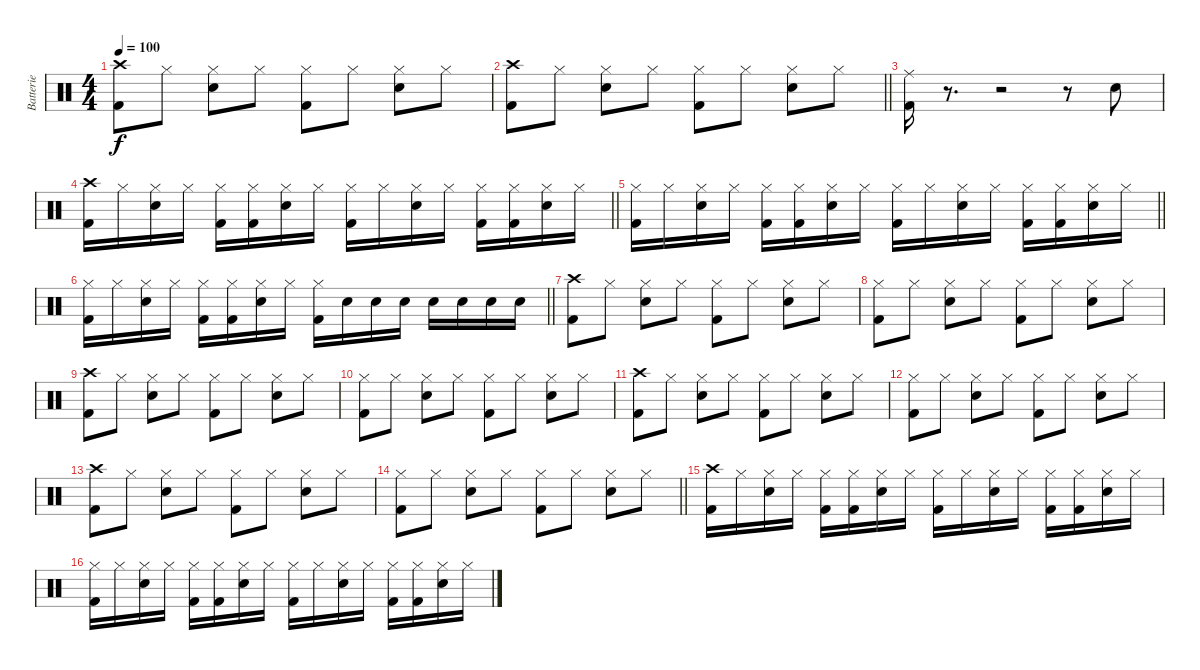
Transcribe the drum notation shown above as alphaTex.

\track ("Batterie" "Batterie") {instrument percussion}
\staff {score}
\articulation defaults
\ts (4 4)
\tempo 100
\clef neutral
\ks c
("Crash high (hit)" "Kick (hit) 2").8{dy f} "Hi-Hat (closed)".8 ("Hi-Hat (closed)" "Snare (hit) 2").8 "Hi-Hat (closed)".8 ("Hi-Hat (closed)" "Kick (hit) 2").8 "Hi-Hat (closed)".8 ("Hi-Hat (closed)" "Snare (hit) 2").8 "Hi-Hat (closed)".8 |
\barLineRight lightlight
("Crash high (hit)" "Kick (hit) 2").8 "Hi-Hat (closed)".8 ("Hi-Hat (closed)" "Snare (hit) 2").8 "Hi-Hat (closed)".8 ("Hi-Hat (closed)" "Kick (hit) 2").8 "Hi-Hat (closed)".8 ("Hi-Hat (closed)" "Snare (hit) 2").8 "Hi-Hat (closed)".8 |
\section ("" "")
("Ride (middle)" "Kick (hit) 2").16 r.8{d} r.2 r.8 "Snare (hit) 2".8 |
\barLineRight lightlight
("Crash high (hit)" "Kick (hit) 2").16 "Hi-Hat (closed)".16 ("Hi-Hat (closed)" "Snare (hit) 2").16 "Hi-Hat (closed)".16 ("Hi-Hat (closed)" "Kick (hit) 2").16 ("Hi-Hat (closed)" "Kick (hit) 2").16 ("Hi-Hat (closed)" "Snare (hit) 2").16 "Hi-Hat (closed)".16 ("Hi-Hat (closed)" "Kick (hit) 2").16 "Hi-Hat (closed)".16 ("Hi-Hat (closed)" "Snare (hit) 2").16 "Hi-Hat (closed)".16 ("Hi-Hat (closed)" "Kick (hit) 2").16 ("Hi-Hat (closed)" "Kick (hit) 2").16 ("Hi-Hat (closed)" "Snare (hit) 2").16 "Hi-Hat (closed)".16 |
\barLineRight lightlight
("Hi-Hat (closed)" "Kick (hit) 2").16 "Hi-Hat (closed)".16 ("Hi-Hat (closed)" "Snare (hit) 2").16 "Hi-Hat (closed)".16 ("Hi-Hat (closed)" "Kick (hit) 2").16 ("Hi-Hat (closed)" "Kick (hit) 2").16 ("Hi-Hat (closed)" "Snare (hit) 2").16 "Hi-Hat (closed)".16 ("Hi-Hat (closed)" "Kick (hit) 2").16 "Hi-Hat (closed)".16 ("Hi-Hat (closed)" "Snare (hit) 2").16 "Hi-Hat (closed)".16 ("Hi-Hat (closed)" "Kick (hit) 2").16 ("Hi-Hat (closed)" "Kick (hit) 2").16 ("Hi-Hat (closed)" "Snare (hit) 2").16 "Hi-Hat (closed)".16 |
\barLineRight lightlight
("Hi-Hat (closed)" "Kick (hit) 2").16 "Hi-Hat (closed)".16 ("Hi-Hat (closed)" "Snare (hit) 2").16 "Hi-Hat (closed)".16 ("Hi-Hat (closed)" "Kick (hit) 2").16 ("Hi-Hat (closed)" "Kick (hit) 2").16 ("Hi-Hat (closed)" "Snare (hit) 2").16 "Hi-Hat (closed)".16 ("Hi-Hat (closed)" "Kick (hit) 2").16 "Snare (hit) 2".16 "Snare (hit) 2".16 "Snare (hit) 2".16 "Snare (hit) 2".16 "Snare (hit) 2".16 "Snare (hit) 2".16 "Snare (hit) 2".16 |
\section ("" "")
("Crash high (hit)" "Kick (hit) 2").8 "Hi-Hat (closed)".8 ("Hi-Hat (closed)" "Snare (hit) 2").8 "Hi-Hat (closed)".8 ("Hi-Hat (closed)" "Kick (hit) 2").8 "Hi-Hat (closed)".8 ("Hi-Hat (closed)" "Snare (hit) 2").8 "Hi-Hat (closed)".8 |
("Hi-Hat (closed)" "Kick (hit) 2").8 "Hi-Hat (closed)".8 ("Hi-Hat (closed)" "Snare (hit) 2").8 "Hi-Hat (closed)".8 ("Hi-Hat (closed)" "Kick (hit) 2").8 "Hi-Hat (closed)".8 ("Hi-Hat (closed)" "Snare (hit) 2").8 "Hi-Hat (closed)".8 |
("Crash high (hit)" "Kick (hit) 2").8 "Hi-Hat (closed)".8 ("Hi-Hat (closed)" "Snare (hit) 2").8 "Hi-Hat (closed)".8 ("Hi-Hat (closed)" "Kick (hit) 2").8 "Hi-Hat (closed)".8 ("Hi-Hat (closed)" "Snare (hit) 2").8 "Hi-Hat (closed)".8 |
("Hi-Hat (closed)" "Kick (hit) 2").8 "Hi-Hat (closed)".8 ("Hi-Hat (closed)" "Snare (hit) 2").8 "Hi-Hat (closed)".8 ("Hi-Hat (closed)" "Kick (hit) 2").8 "Hi-Hat (closed)".8 ("Hi-Hat (closed)" "Snare (hit) 2").8 "Hi-Hat (closed)".8 |
("Crash high (hit)" "Kick (hit) 2").8 "Hi-Hat (closed)".8 ("Hi-Hat (closed)" "Snare (hit) 2").8 "Hi-Hat (closed)".8 ("Hi-Hat (closed)" "Kick (hit) 2").8 "Hi-Hat (closed)".8 ("Hi-Hat (closed)" "Snare (hit) 2").8 "Hi-Hat (closed)".8 |
("Hi-Hat (closed)" "Kick (hit) 2").8 "Hi-Hat (closed)".8 ("Hi-Hat (closed)" "Snare (hit) 2").8 "Hi-Hat (closed)".8 ("Hi-Hat (closed)" "Kick (hit) 2").8 "Hi-Hat (closed)".8 ("Hi-Hat (closed)" "Snare (hit) 2").8 "Hi-Hat (closed)".8 |
("Crash high (hit)" "Kick (hit) 2").8 "Hi-Hat (closed)".8 ("Hi-Hat (closed)" "Snare (hit) 2").8 "Hi-Hat (closed)".8 ("Hi-Hat (closed)" "Kick (hit) 2").8 "Hi-Hat (closed)".8 ("Hi-Hat (closed)" "Snare (hit) 2").8 "Hi-Hat (closed)".8 |
\barLineRight lightlight
("Hi-Hat (closed)" "Kick (hit) 2").8 "Hi-Hat (closed)".8 ("Hi-Hat (closed)" "Snare (hit) 2").8 "Hi-Hat (closed)".8 ("Hi-Hat (closed)" "Kick (hit) 2").8 "Hi-Hat (closed)".8 ("Hi-Hat (closed)" "Snare (hit) 2").8 "Hi-Hat (closed)".8 |
\section ("" "")
("Crash high (hit)" "Kick (hit) 2").16 "Hi-Hat (closed)".16 ("Hi-Hat (closed)" "Snare (hit) 2").16 "Hi-Hat (closed)".16 ("Hi-Hat (closed)" "Kick (hit) 2").16 ("Hi-Hat (closed)" "Kick (hit) 2").16 ("Hi-Hat (closed)" "Snare (hit) 2").16 "Hi-Hat (closed)".16 ("Hi-Hat (closed)" "Kick (hit) 2").16 "Hi-Hat (closed)".16 ("Hi-Hat (closed)" "Snare (hit) 2").16 "Hi-Hat (closed)".16 ("Hi-Hat (closed)" "Kick (hit) 2").16 ("Hi-Hat (closed)" "Kick (hit) 2").16 ("Hi-Hat (closed)" "Snare (hit) 2").16 "Hi-Hat (closed)".16 |
("Hi-Hat (closed)" "Kick (hit) 2").16 "Hi-Hat (closed)".16 ("Hi-Hat (closed)" "Snare (hit) 2").16 "Hi-Hat (closed)".16 ("Hi-Hat (closed)" "Kick (hit) 2").16 ("Hi-Hat (closed)" "Kick (hit) 2").16 ("Hi-Hat (closed)" "Snare (hit) 2").16 "Hi-Hat (closed)".16 ("Hi-Hat (closed)" "Kick (hit) 2").16 "Hi-Hat (closed)".16 ("Hi-Hat (closed)" "Snare (hit) 2").16 "Hi-Hat (closed)".16 ("Hi-Hat (closed)" "Kick (hit) 2").16 ("Hi-Hat (closed)" "Kick (hit) 2").16 ("Hi-Hat (closed)" "Snare (hit) 2").16 "Hi-Hat (closed)".16
